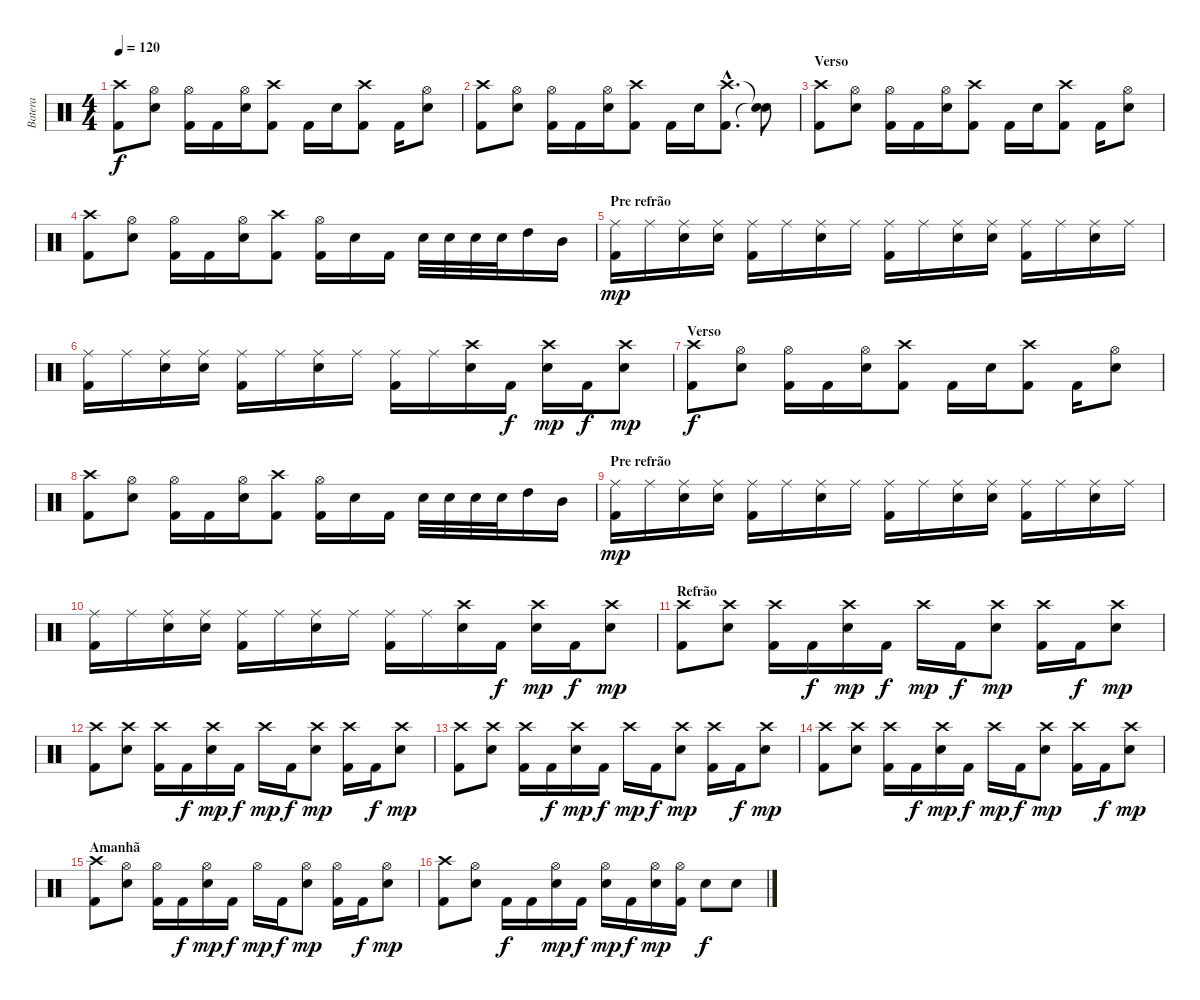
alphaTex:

\track ("Batera" "Batera") {instrument percussion}
\staff {score}
\articulation defaults
\ts (4 4)
\tempo 120
\clef neutral
\ks c
("Crash high (hit)" "Kick (hit) 2").8{dy f} ("Hi-Hat (open)" "Snare (hit) 2").8 ("Hi-Hat (open)" "Kick (hit) 2").16 "Kick (hit) 2".16 ("Hi-Hat (open)" "Snare (hit) 2").16 ("Crash high (hit)" "Kick (hit) 2").8 "Kick (hit) 2".16 "Snare (hit) 2".16 ("Crash high (hit)" "Kick (hit) 2").8 "Kick (hit) 2".16 ("Hi-Hat (open)" "Snare (hit) 2").8 |
("Crash high (hit)" "Kick (hit) 2").8 ("Hi-Hat (open)" "Snare (hit) 2").8 ("Hi-Hat (open)" "Kick (hit) 2").16 "Kick (hit) 2".16 ("Hi-Hat (open)" "Snare (hit) 2").16 ("Crash high (hit)" "Kick (hit) 2").8 "Kick (hit) 2".16 "Snare (hit) 2".16 ("Crash high (hit)"{hac} "Kick (hit) 2"{hac}).8{d} ("Snare (hit)"{t} "Snare (hit)"{t}).8 |
\section ("" "Verso")
("Crash high (hit)" "Kick (hit) 2").8 ("Hi-Hat (open)" "Snare (hit) 2").8 ("Hi-Hat (open)" "Kick (hit) 2").16 "Kick (hit) 2".16 ("Hi-Hat (open)" "Snare (hit) 2").16 ("Crash high (hit)" "Kick (hit) 2").8 "Kick (hit) 2".16 "Snare (hit) 2".16 ("Crash high (hit)" "Kick (hit) 2").8 "Kick (hit) 2".16 ("Hi-Hat (open)" "Snare (hit) 2").8 |
("Crash high (hit)" "Kick (hit) 2").8 ("Hi-Hat (open)" "Snare (hit) 2").8 ("Hi-Hat (open)" "Kick (hit) 2").16 "Kick (hit) 2".16 ("Hi-Hat (open)" "Snare (hit) 2").16 ("Crash high (hit)" "Kick (hit) 2").8 ("Hi-Hat (open)" "Kick (hit) 2").16 "Snare (hit) 2".16 "Kick (hit) 2".16 "Snare (hit) 2".32 "Snare (hit) 2".32 "Snare (hit) 2".32 "Snare (hit) 2".32 "High Tom (hit)".16 "Mid Tom (hit)".16 |
\section ("" "Pre refrão")
("Ride (middle)" "Kick (hit) 2").16{dy mp} "Ride (middle)".16 ("Ride (middle)" "Snare (hit) 2").16 ("Ride (middle)" "Snare (hit) 2").16 ("Ride (middle)" "Kick (hit) 2").16 "Ride (middle)".16 ("Ride (middle)" "Snare (hit) 2").16 "Ride (middle)".16 ("Ride (middle)" "Kick (hit) 2").16 "Ride (middle)".16 ("Ride (middle)" "Snare (hit) 2").16 ("Ride (middle)" "Snare (hit) 2").16 ("Ride (middle)" "Kick (hit) 2").16 "Ride (middle)".16 ("Ride (middle)" "Snare (hit) 2").16 "Ride (middle)".16 |
("Ride (middle)" "Kick (hit) 2").16 "Ride (middle)".16 ("Ride (middle)" "Snare (hit) 2").16 ("Ride (middle)" "Snare (hit) 2").16 ("Ride (middle)" "Kick (hit) 2").16 "Ride (middle)".16 ("Ride (middle)" "Snare (hit) 2").16 "Ride (middle)".16 ("Ride (middle)" "Kick (hit) 2").16 "Ride (middle)".16 ("Crash high (hit)" "Snare (hit) 2").16 "Kick (hit) 2".16{dy f} ("Crash high (hit)" "Snare (hit) 2").16{dy mp} "Kick (hit) 2".16{dy f} ("Crash high (hit)" "Snare (hit) 2").8{dy mp} |
\section ("" "Verso")
("Crash high (hit)" "Kick (hit) 2").8{dy f} ("Hi-Hat (open)" "Snare (hit) 2").8 ("Hi-Hat (open)" "Kick (hit) 2").16 "Kick (hit) 2".16 ("Hi-Hat (open)" "Snare (hit) 2").16 ("Crash high (hit)" "Kick (hit) 2").8 "Kick (hit) 2".16 "Snare (hit) 2".16 ("Crash high (hit)" "Kick (hit) 2").8 "Kick (hit) 2".16 ("Hi-Hat (open)" "Snare (hit) 2").8 |
("Crash high (hit)" "Kick (hit) 2").8 ("Hi-Hat (open)" "Snare (hit) 2").8 ("Hi-Hat (open)" "Kick (hit) 2").16 "Kick (hit) 2".16 ("Hi-Hat (open)" "Snare (hit) 2").16 ("Crash high (hit)" "Kick (hit) 2").8 ("Hi-Hat (open)" "Kick (hit) 2").16 "Snare (hit) 2".16 "Kick (hit) 2".16 "Snare (hit) 2".32 "Snare (hit) 2".32 "Snare (hit) 2".32 "Snare (hit) 2".32 "High Tom (hit)".16 "Mid Tom (hit)".16 |
\section ("" "Pre refrão")
("Ride (middle)" "Kick (hit) 2").16{dy mp} "Ride (middle)".16 ("Ride (middle)" "Snare (hit) 2").16 ("Ride (middle)" "Snare (hit) 2").16 ("Ride (middle)" "Kick (hit) 2").16 "Ride (middle)".16 ("Ride (middle)" "Snare (hit) 2").16 "Ride (middle)".16 ("Ride (middle)" "Kick (hit) 2").16 "Ride (middle)".16 ("Ride (middle)" "Snare (hit) 2").16 ("Ride (middle)" "Snare (hit) 2").16 ("Ride (middle)" "Kick (hit) 2").16 "Ride (middle)".16 ("Ride (middle)" "Snare (hit) 2").16 "Ride (middle)".16 |
("Ride (middle)" "Kick (hit) 2").16 "Ride (middle)".16 ("Ride (middle)" "Snare (hit) 2").16 ("Ride (middle)" "Snare (hit) 2").16 ("Ride (middle)" "Kick (hit) 2").16 "Ride (middle)".16 ("Ride (middle)" "Snare (hit) 2").16 "Ride (middle)".16 ("Ride (middle)" "Kick (hit) 2").16 "Ride (middle)".16 ("Crash high (hit)" "Snare (hit) 2").16 "Kick (hit) 2".16{dy f} ("Crash high (hit)" "Snare (hit) 2").16{dy mp} "Kick (hit) 2".16{dy f} ("Crash high (hit)" "Snare (hit) 2").8{dy mp} |
\section ("" "Refrão")
("Crash high (hit)" "Kick (hit) 2").8 ("Crash high (hit)" "Snare (hit) 2").8 ("Crash high (hit)" "Kick (hit) 2").16 "Kick (hit) 2".16{dy f} ("Crash high (hit)" "Snare (hit) 2").16{dy mp} "Kick (hit) 2".16{dy f} "Crash high (hit)".16{dy mp} "Kick (hit) 2".16{dy f} ("Crash high (hit)" "Snare (hit) 2").8{dy mp} ("Crash high (hit)" "Kick (hit) 2").16 "Kick (hit) 2".16{dy f} ("Crash high (hit)" "Snare (hit) 2").8{dy mp} |
("Crash high (hit)" "Kick (hit) 2").8 ("Crash high (hit)" "Snare (hit) 2").8 ("Crash high (hit)" "Kick (hit) 2").16 "Kick (hit) 2".16{dy f} ("Crash high (hit)" "Snare (hit) 2").16{dy mp} "Kick (hit) 2".16{dy f} "Crash high (hit)".16{dy mp} "Kick (hit) 2".16{dy f} ("Crash high (hit)" "Snare (hit) 2").8{dy mp} ("Crash high (hit)" "Kick (hit) 2").16 "Kick (hit) 2".16{dy f} ("Crash high (hit)" "Snare (hit) 2").8{dy mp} |
("Crash high (hit)" "Kick (hit) 2").8 ("Crash high (hit)" "Snare (hit) 2").8 ("Crash high (hit)" "Kick (hit) 2").16 "Kick (hit) 2".16{dy f} ("Crash high (hit)" "Snare (hit) 2").16{dy mp} "Kick (hit) 2".16{dy f} "Crash high (hit)".16{dy mp} "Kick (hit) 2".16{dy f} ("Crash high (hit)" "Snare (hit) 2").8{dy mp} ("Crash high (hit)" "Kick (hit) 2").16 "Kick (hit) 2".16{dy f} ("Crash high (hit)" "Snare (hit) 2").8{dy mp} |
("Crash high (hit)" "Kick (hit) 2").8 ("Crash high (hit)" "Snare (hit) 2").8 ("Crash high (hit)" "Kick (hit) 2").16 "Kick (hit) 2".16{dy f} ("Crash high (hit)" "Snare (hit) 2").16{dy mp} "Kick (hit) 2".16{dy f} "Crash high (hit)".16{dy mp} "Kick (hit) 2".16{dy f} ("Crash high (hit)" "Snare (hit) 2").8{dy mp} ("Crash high (hit)" "Kick (hit) 2").16 "Kick (hit) 2".16{dy f} ("Crash high (hit)" "Snare (hit) 2").8{dy mp} |
\section ("" "Amanhã")
("Crash high (hit)" "Kick (hit) 2").8 ("Hi-Hat (open)" "Snare (hit) 2").8 ("Hi-Hat (open)" "Kick (hit) 2").16 "Kick (hit) 2".16{dy f} ("Hi-Hat (open)" "Snare (hit) 2").16{dy mp} "Kick (hit) 2".16{dy f} "Hi-Hat (open)".16{dy mp} "Kick (hit) 2".16{dy f} ("Hi-Hat (open)" "Snare (hit) 2").8{dy mp} ("Hi-Hat (open)" "Kick (hit) 2").16 "Kick (hit) 2".16{dy f} ("Hi-Hat (open)" "Snare (hit) 2").8{dy mp} |
("Crash high (hit)" "Kick (hit) 2").8 ("Hi-Hat (open)" "Snare (hit) 2").8 "Kick (hit) 2".16{dy f} "Kick (hit) 2".16 ("Hi-Hat (open)" "Snare (hit) 2").16{dy mp} "Kick (hit) 2".16{dy f} ("Hi-Hat (open)" "Snare (hit) 2").16{dy mp} "Kick (hit) 2".16{dy f} ("Hi-Hat (open)" "Snare (hit) 2").16{dy mp} ("Hi-Hat (open)" "Kick (hit) 2").16 "Snare (hit) 2".8{dy f} "Snare (hit) 2".8
